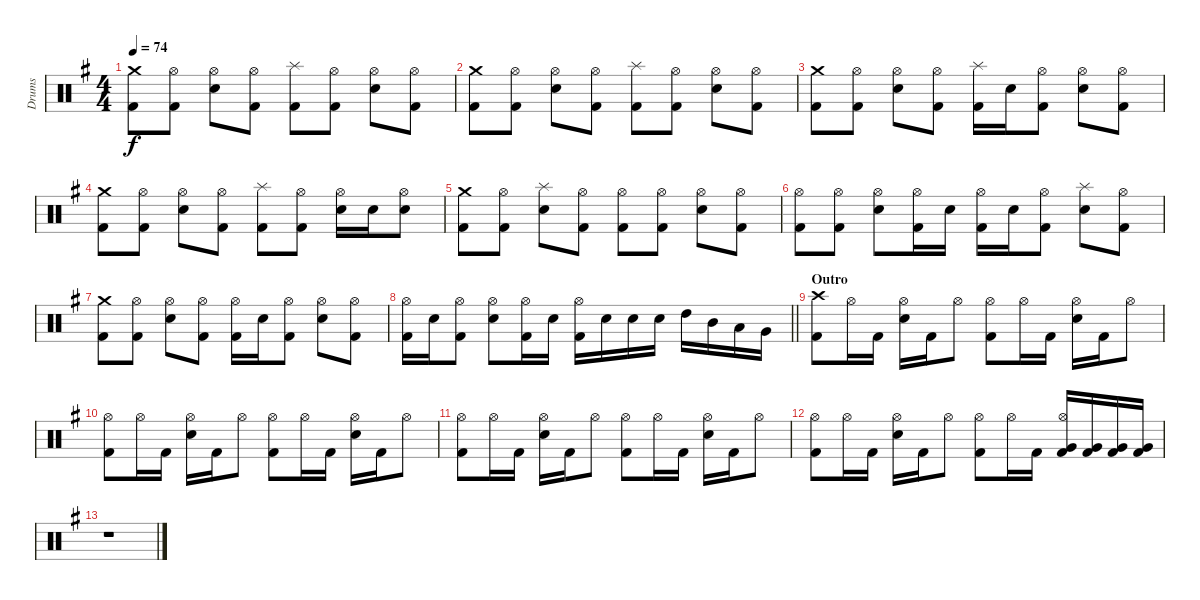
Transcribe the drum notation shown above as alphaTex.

\track ("Drums" "Drums") {instrument percussion}
\staff {score}
\articulation defaults
\ts (4 4)
\tempo 74
\clef neutral
\ks eminor
("Crash medium (hit)" "Kick (hit) 2").8{dy f} ("Hi-Hat (open)" "Kick (hit) 2").8 ("Hi-Hat (open)" "Electric Snare (hit)").8 ("Hi-Hat (open)" "Kick (hit) 2").8 ("Splash (hit)" "Kick (hit) 2").8 ("Hi-Hat (open)" "Kick (hit) 2").8 ("Hi-Hat (open)" "Electric Snare (hit)").8 ("Hi-Hat (open)" "Kick (hit) 2").8 |
("Crash medium (hit)" "Kick (hit) 2").8 ("Hi-Hat (open)" "Kick (hit) 2").8 ("Hi-Hat (open)" "Electric Snare (hit)").8 ("Hi-Hat (open)" "Kick (hit) 2").8 ("Splash (hit)" "Kick (hit) 2").8 ("Hi-Hat (open)" "Kick (hit) 2").8 ("Hi-Hat (open)" "Electric Snare (hit)").8 ("Hi-Hat (open)" "Kick (hit) 2").8 |
("Crash medium (hit)" "Kick (hit) 2").8 ("Hi-Hat (open)" "Kick (hit) 2").8 ("Hi-Hat (open)" "Electric Snare (hit)").8 ("Hi-Hat (open)" "Kick (hit) 2").8 ("Splash (hit)" "Kick (hit) 2").16 "Electric Snare (hit)".16 ("Hi-Hat (open)" "Kick (hit) 2").8 ("Hi-Hat (open)" "Electric Snare (hit)").8 ("Hi-Hat (open)" "Kick (hit) 2").8 |
("Crash medium (hit)" "Kick (hit) 2").8 ("Hi-Hat (open)" "Kick (hit) 2").8 ("Hi-Hat (open)" "Electric Snare (hit)").8 ("Hi-Hat (open)" "Kick (hit) 2").8 ("Splash (hit)" "Kick (hit) 2").8 ("Hi-Hat (open)" "Kick (hit) 2").8 ("Hi-Hat (open)" "Electric Snare (hit)").16 "Electric Snare (hit)".16 ("Hi-Hat (open)" "Electric Snare (hit)").8 |
("Crash medium (hit)" "Kick (hit) 2").8 ("Hi-Hat (open)" "Kick (hit) 2").8 ("Splash (hit)" "Electric Snare (hit)").8 ("Hi-Hat (open)" "Kick (hit) 2").8 ("Hi-Hat (open)" "Kick (hit) 2").8 ("Hi-Hat (open)" "Kick (hit) 2").8 ("Hi-Hat (open)" "Electric Snare (hit)").8 ("Hi-Hat (open)" "Kick (hit) 2").8 |
("Hi-Hat (open)" "Kick (hit) 2").8 ("Hi-Hat (open)" "Kick (hit) 2").8 ("Hi-Hat (open)" "Electric Snare (hit)").8 ("Hi-Hat (open)" "Kick (hit) 2").16 "Electric Snare (hit)".16 ("Hi-Hat (open)" "Kick (hit) 2").16 "Electric Snare (hit)".16 ("Hi-Hat (open)" "Kick (hit) 2").8 ("Splash (hit)" "Electric Snare (hit)").8 ("Hi-Hat (open)" "Kick (hit) 2").8 |
("Crash medium (hit)" "Kick (hit) 2").8 ("Hi-Hat (open)" "Kick (hit) 2").8 ("Hi-Hat (open)" "Electric Snare (hit)").8 ("Hi-Hat (open)" "Kick (hit) 2").8 ("Hi-Hat (open)" "Kick (hit) 2").16 "Electric Snare (hit)".16 ("Hi-Hat (open)" "Kick (hit) 2").8 ("Hi-Hat (open)" "Electric Snare (hit)").8 ("Hi-Hat (open)" "Kick (hit) 2").8 |
\barLineRight lightlight
("Hi-Hat (open)" "Kick (hit) 2").16 "Electric Snare (hit)".16 ("Hi-Hat (open)" "Kick (hit) 2").8 ("Hi-Hat (open)" "Electric Snare (hit)").8 ("Hi-Hat (open)" "Kick (hit) 2").16 "Electric Snare (hit)".16 ("Hi-Hat (open)" "Kick (hit) 2").16 "Electric Snare (hit)".16 "Electric Snare (hit)".16 "Electric Snare (hit)".16 "High Tom (hit)".16 "Mid Tom (hit)".16 "Low Tom (hit)".16 "Very Low Tom (hit)".16 |
\section ("" "Outro")
("Crash high (hit)" "Kick (hit) 2").8 "Hi-Hat (open)".16 "Kick (hit) 2".16 ("Hi-Hat (open)" "Electric Snare (hit)").16 "Kick (hit) 2".16 "Hi-Hat (open)".8 ("Hi-Hat (open)" "Kick (hit) 2").8 "Hi-Hat (open)".16 "Kick (hit) 2".16 ("Hi-Hat (open)" "Electric Snare (hit)").16 "Kick (hit) 2".16 "Hi-Hat (open)".8 |
("Hi-Hat (open)" "Kick (hit) 2").8 "Hi-Hat (open)".16 "Kick (hit) 2".16 ("Hi-Hat (open)" "Electric Snare (hit)").16 "Kick (hit) 2".16 "Hi-Hat (open)".8 ("Hi-Hat (open)" "Kick (hit) 2").8 "Hi-Hat (open)".16 "Kick (hit) 2".16 ("Hi-Hat (open)" "Electric Snare (hit)").16 "Kick (hit) 2".16 "Hi-Hat (open)".8 |
("Hi-Hat (open)" "Kick (hit) 2").8 "Hi-Hat (open)".16 "Kick (hit) 2".16 ("Hi-Hat (open)" "Electric Snare (hit)").16 "Kick (hit) 2".16 "Hi-Hat (open)".8 ("Hi-Hat (open)" "Kick (hit) 2").8 "Hi-Hat (open)".16 "Kick (hit) 2".16 ("Hi-Hat (open)" "Electric Snare (hit)").16 "Kick (hit) 2".16 "Hi-Hat (open)".8 |
("Hi-Hat (open)" "Kick (hit) 2").8 "Hi-Hat (open)".16 "Kick (hit) 2".16 ("Hi-Hat (open)" "Electric Snare (hit)").16 "Kick (hit) 2".16 "Hi-Hat (open)".8 ("Hi-Hat (open)" "Kick (hit) 2").8 "Hi-Hat (open)".16 "Kick (hit) 2".16 ("Hi-Hat (open)" "Very Low Tom (hit)" "Kick (hit) 2").16 ("Very Low Tom (hit)" "Kick (hit) 2").16 ("Very Low Tom (hit)" "Kick (hit) 2").16 ("Very Low Tom (hit)" "Kick (hit) 2").16 |
r.1
